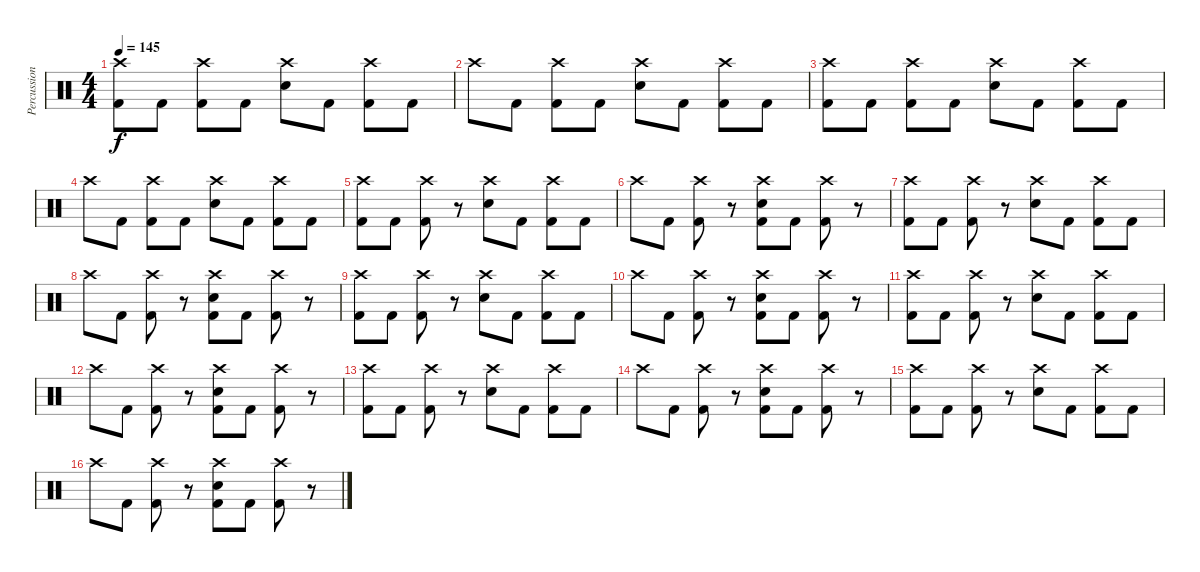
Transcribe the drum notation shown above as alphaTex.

\track ("Percussion" "Percussion") {instrument percussion}
\staff {score}
\articulation defaults
\ts (4 4)
\tempo 145
\clef neutral
\ks c
("Crash high (hit)" "Kick (hit) 2").8{dy f} "Kick (hit) 2".8 ("Crash high (hit)" "Kick (hit) 2").8 "Kick (hit) 2".8 ("Crash high (hit)" "Snare (hit) 2").8 "Kick (hit) 2".8 ("Crash high (hit)" "Kick (hit) 2").8 "Kick (hit) 2".8 |
"Crash high (hit)".8 "Kick (hit) 2".8 ("Crash high (hit)" "Kick (hit) 2").8 "Kick (hit) 2".8 ("Crash high (hit)" "Snare (hit) 2").8 "Kick (hit) 2".8 ("Crash high (hit)" "Kick (hit) 2").8 "Kick (hit) 2".8 |
("Crash high (hit)" "Kick (hit) 2").8 "Kick (hit) 2".8 ("Crash high (hit)" "Kick (hit) 2").8 "Kick (hit) 2".8 ("Crash high (hit)" "Snare (hit) 2").8 "Kick (hit) 2".8 ("Crash high (hit)" "Kick (hit) 2").8 "Kick (hit) 2".8 |
"Crash high (hit)".8 "Kick (hit) 2".8 ("Crash high (hit)" "Kick (hit) 2").8 "Kick (hit) 2".8 ("Crash high (hit)" "Snare (hit) 2").8 "Kick (hit) 2".8 ("Crash high (hit)" "Kick (hit) 2").8 "Kick (hit) 2".8 |
("Crash high (hit)" "Kick (hit) 2").8 "Kick (hit) 2".8 ("Crash high (hit)" "Kick (hit) 2").8 r.8 ("Crash high (hit)" "Snare (hit) 2").8 "Kick (hit) 2".8 ("Crash high (hit)" "Kick (hit) 2").8 "Kick (hit) 2".8 |
"Crash high (hit)".8 "Kick (hit) 2".8 ("Crash high (hit)" "Kick (hit) 2").8 r.8 ("Crash high (hit)" "Snare (hit) 2" "Kick (hit) 2").8 "Kick (hit) 2".8 ("Crash high (hit)" "Kick (hit) 2").8 r.8 |
("Crash high (hit)" "Kick (hit) 2").8 "Kick (hit) 2".8 ("Crash high (hit)" "Kick (hit) 2").8 r.8 ("Crash high (hit)" "Snare (hit) 2").8 "Kick (hit) 2".8 ("Crash high (hit)" "Kick (hit) 2").8 "Kick (hit) 2".8 |
"Crash high (hit)".8 "Kick (hit) 2".8 ("Crash high (hit)" "Kick (hit) 2").8 r.8 ("Crash high (hit)" "Snare (hit) 2" "Kick (hit) 2").8 "Kick (hit) 2".8 ("Crash high (hit)" "Kick (hit) 2").8 r.8 |
("Crash high (hit)" "Kick (hit) 2").8 "Kick (hit) 2".8 ("Crash high (hit)" "Kick (hit) 2").8 r.8 ("Crash high (hit)" "Snare (hit) 2").8 "Kick (hit) 2".8 ("Crash high (hit)" "Kick (hit) 2").8 "Kick (hit) 2".8 |
"Crash high (hit)".8 "Kick (hit) 2".8 ("Crash high (hit)" "Kick (hit) 2").8 r.8 ("Crash high (hit)" "Snare (hit) 2" "Kick (hit) 2").8 "Kick (hit) 2".8 ("Crash high (hit)" "Kick (hit) 2").8 r.8 |
("Crash high (hit)" "Kick (hit) 2").8 "Kick (hit) 2".8 ("Crash high (hit)" "Kick (hit) 2").8 r.8 ("Crash high (hit)" "Snare (hit) 2").8 "Kick (hit) 2".8 ("Crash high (hit)" "Kick (hit) 2").8 "Kick (hit) 2".8 |
"Crash high (hit)".8 "Kick (hit) 2".8 ("Crash high (hit)" "Kick (hit) 2").8 r.8 ("Crash high (hit)" "Snare (hit) 2" "Kick (hit) 2").8 "Kick (hit) 2".8 ("Crash high (hit)" "Kick (hit) 2").8 r.8 |
("Crash high (hit)" "Kick (hit) 2").8 "Kick (hit) 2".8 ("Crash high (hit)" "Kick (hit) 2").8 r.8 ("Crash high (hit)" "Snare (hit) 2").8 "Kick (hit) 2".8 ("Crash high (hit)" "Kick (hit) 2").8 "Kick (hit) 2".8 |
"Crash high (hit)".8 "Kick (hit) 2".8 ("Crash high (hit)" "Kick (hit) 2").8 r.8 ("Crash high (hit)" "Snare (hit) 2" "Kick (hit) 2").8 "Kick (hit) 2".8 ("Crash high (hit)" "Kick (hit) 2").8 r.8 |
("Crash high (hit)" "Kick (hit) 2").8 "Kick (hit) 2".8 ("Crash high (hit)" "Kick (hit) 2").8 r.8 ("Crash high (hit)" "Snare (hit) 2").8 "Kick (hit) 2".8 ("Crash high (hit)" "Kick (hit) 2").8 "Kick (hit) 2".8 |
"Crash high (hit)".8 "Kick (hit) 2".8 ("Crash high (hit)" "Kick (hit) 2").8 r.8 ("Crash high (hit)" "Snare (hit) 2" "Kick (hit) 2").8 "Kick (hit) 2".8 ("Crash high (hit)" "Kick (hit) 2").8 r.8
